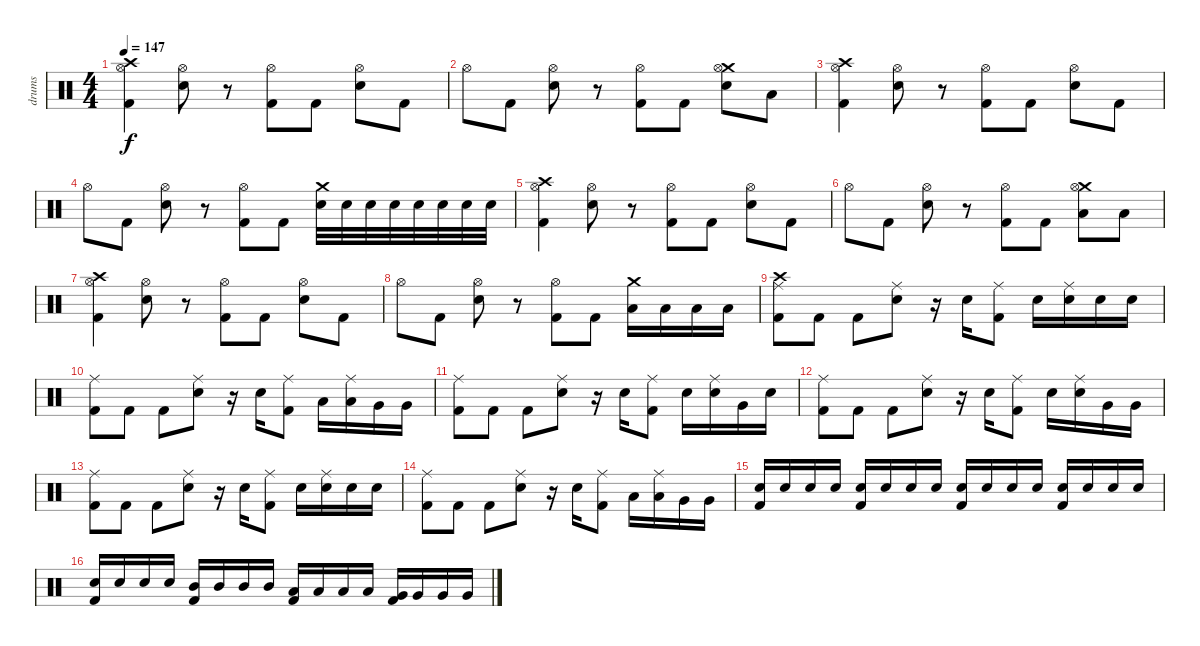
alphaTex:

\track ("drums" "drums") {instrument percussion}
\staff {score}
\articulation defaults
\ts (4 4)
\tempo 147
\clef neutral
\ks c
("Crash high (hit)" "Hi-Hat (open)" "Kick (hit) 2").4{dy f} ("Hi-Hat (open)" "Electric Snare (hit)").8 r.8 ("Hi-Hat (open)" "Kick (hit) 2").8 "Kick (hit) 2".8 ("Hi-Hat (open)" "Electric Snare (hit)").8 "Kick (hit) 2".8 |
"Hi-Hat (open)".8 "Kick (hit) 2".8 ("Hi-Hat (open)" "Electric Snare (hit)").8 r.8 ("Hi-Hat (open)" "Kick (hit) 2").8 "Kick (hit) 2".8 ("Crash medium (hit)" "Hi-Hat (open)" "Electric Snare (hit)").8 "Low Floor Tom (hit)".8 |
("Crash high (hit)" "Hi-Hat (open)" "Kick (hit) 2").4 ("Hi-Hat (open)" "Electric Snare (hit)").8 r.8 ("Hi-Hat (open)" "Kick (hit) 2").8 "Kick (hit) 2".8 ("Hi-Hat (open)" "Electric Snare (hit)").8 "Kick (hit) 2".8 |
"Hi-Hat (open)".8 "Kick (hit) 2".8 ("Hi-Hat (open)" "Electric Snare (hit)").8 r.8 ("Hi-Hat (open)" "Kick (hit) 2").8 "Kick (hit) 2".8 ("Crash medium (hit)" "Electric Snare (hit)").32 "Electric Snare (hit)".32 "Electric Snare (hit)".32 "Electric Snare (hit)".32 "Electric Snare (hit)".32 "Electric Snare (hit)".32 "Electric Snare (hit)".32 "Electric Snare (hit)".32 |
("Crash high (hit)" "Hi-Hat (open)" "Kick (hit) 2").4 ("Hi-Hat (open)" "Electric Snare (hit)").8 r.8 ("Hi-Hat (open)" "Kick (hit) 2").8 "Kick (hit) 2".8 ("Hi-Hat (open)" "Electric Snare (hit)").8 "Kick (hit) 2".8 |
"Hi-Hat (open)".8 "Kick (hit) 2".8 ("Hi-Hat (open)" "Electric Snare (hit)").8 r.8 ("Hi-Hat (open)" "Kick (hit) 2").8 "Kick (hit) 2".8 ("Crash medium (hit)" "Hi-Hat (open)" "Low Tom (hit)").8 "Low Tom (hit)".8 |
("Crash high (hit)" "Hi-Hat (open)" "Kick (hit) 2").4 ("Hi-Hat (open)" "Electric Snare (hit)").8 r.8 ("Hi-Hat (open)" "Kick (hit) 2").8 "Kick (hit) 2".8 ("Hi-Hat (open)" "Electric Snare (hit)").8 "Kick (hit) 2".8 |
"Hi-Hat (open)".8 "Kick (hit) 2".8 ("Hi-Hat (open)" "Electric Snare (hit)").8 r.8 ("Hi-Hat (open)" "Kick (hit) 2").8 "Kick (hit) 2".8 ("Crash medium (hit)" "Low Floor Tom (hit)").16 "Low Floor Tom (hit)".16 "Low Floor Tom (hit)".16 "Low Floor Tom (hit)".16 |
("Ride (middle)" "Crash high (hit)" "Kick (hit) 2").8 "Kick (hit) 2".8 "Kick (hit) 2".8 ("Ride (middle)" "Electric Snare (hit)").8 r.16 "Electric Snare (hit)".16 ("Ride (middle)" "Kick (hit) 2").8 "Electric Snare (hit)".16 ("Ride (middle)" "Electric Snare (hit)").16 "Electric Snare (hit)".16 "Electric Snare (hit)".16 |
("Ride (middle)" "Kick (hit) 2").8 "Kick (hit) 2".8 "Kick (hit) 2".8 ("Ride (middle)" "Electric Snare (hit)").8 r.16 "Electric Snare (hit)".16 ("Ride (middle)" "Kick (hit) 2").8 "Low Tom (hit)".16 ("Ride (middle)" "Low Tom (hit)").16 "Very Low Tom (hit)".16 "Very Low Tom (hit)".16 |
("Ride (middle)" "Kick (hit) 2").8 "Kick (hit) 2".8 "Kick (hit) 2".8 ("Ride (middle)" "Electric Snare (hit)").8 r.16 "Electric Snare (hit)".16 ("Ride (middle)" "Kick (hit) 2").8 "Electric Snare (hit)".16 ("Ride (middle)" "Electric Snare (hit)").16 "Very Low Tom (hit)".16 "Electric Snare (hit)".16 |
("Ride (middle)" "Kick (hit) 2").8 "Kick (hit) 2".8 "Kick (hit) 2".8 ("Ride (middle)" "Electric Snare (hit)").8 r.16 "Electric Snare (hit)".16 ("Ride (middle)" "Kick (hit) 2").8 "Electric Snare (hit)".16 ("Ride (middle)" "Electric Snare (hit)").16 "Very Low Tom (hit)".16 "Very Low Tom (hit)".16 |
("Ride (middle)" "Kick (hit) 2").8 "Kick (hit) 2".8 "Kick (hit) 2".8 ("Ride (middle)" "Electric Snare (hit)").8 r.16 "Electric Snare (hit)".16 ("Ride (middle)" "Kick (hit) 2").8 "Electric Snare (hit)".16 ("Ride (middle)" "Electric Snare (hit)").16 "Electric Snare (hit)".16 "Electric Snare (hit)".16 |
("Ride (middle)" "Kick (hit) 2").8 "Kick (hit) 2".8 "Kick (hit) 2".8 ("Ride (middle)" "Electric Snare (hit)").8 r.16 "Electric Snare (hit)".16 ("Ride (middle)" "Kick (hit) 2").8 "Low Tom (hit)".16 ("Ride (middle)" "Low Tom (hit)").16 "Very Low Tom (hit)".16 "Very Low Tom (hit)".16 |
("Electric Snare (hit)" "Kick (hit) 2").16 "Electric Snare (hit)".16 "Electric Snare (hit)".16 "Electric Snare (hit)".16 ("Electric Snare (hit)" "Kick (hit) 2").16 "Electric Snare (hit)".16 "Electric Snare (hit)".16 "Electric Snare (hit)".16 ("Electric Snare (hit)" "Kick (hit) 2").16 "Electric Snare (hit)".16 "Electric Snare (hit)".16 "Electric Snare (hit)".16 ("Electric Snare (hit)" "Kick (hit) 2").16 "Electric Snare (hit)".16 "Electric Snare (hit)".16 "Electric Snare (hit)".16 |
("Electric Snare (hit)" "Kick (hit) 2").16 "Electric Snare (hit)".16 "Electric Snare (hit)".16 "Electric Snare (hit)".16 ("Mid Tom (hit)" "Kick (hit) 2").16 "Mid Tom (hit)".16 "Mid Tom (hit)".16 "Mid Tom (hit)".16 ("Low Tom (hit)" "Kick (hit) 2").16 "Low Tom (hit)".16 "Low Tom (hit)".16 "Low Tom (hit)".16 ("Very Low Tom (hit)" "Kick (hit) 2").16 "Very Low Tom (hit)".16 "Very Low Tom (hit)".16 "Very Low Tom (hit)".16
